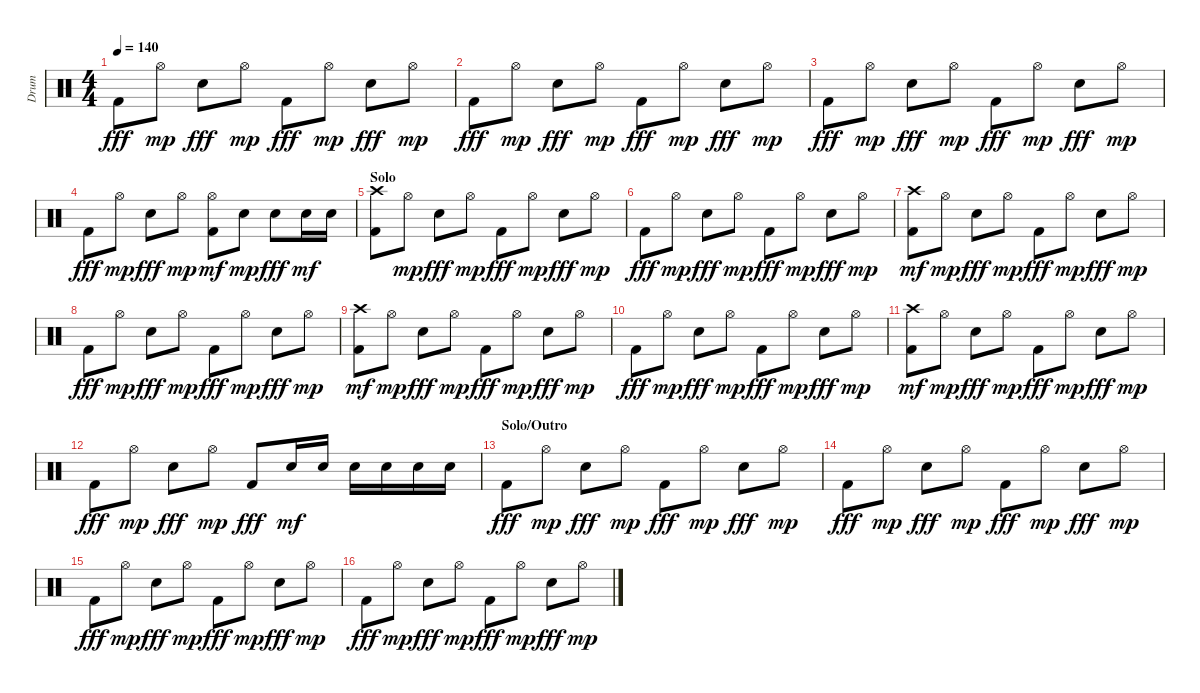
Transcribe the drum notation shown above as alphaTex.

\track ("Drum" "Drum") {instrument percussion}
\staff {score}
\articulation defaults
\ts (4 4)
\tempo 140
\clef neutral
\ks c "Kick (hit) 2".8{dy fff} "Hi-Hat (open)".8{dy mp} "Electric Snare (hit)".8{dy fff} "Hi-Hat (open)".8{dy mp} "Kick (hit) 2".8{dy fff} "Hi-Hat (open)".8{dy mp} "Electric Snare (hit)".8{dy fff} "Hi-Hat (open)".8{dy mp}
|
"Kick (hit) 2".8{dy fff} "Hi-Hat (open)".8{dy mp} "Electric Snare (hit)".8{dy fff} "Hi-Hat (open)".8{dy mp} "Kick (hit) 2".8{dy fff} "Hi-Hat (open)".8{dy mp} "Electric Snare (hit)".8{dy fff} "Hi-Hat (open)".8{dy mp} |
"Kick (hit) 2".8{dy fff} "Hi-Hat (open)".8{dy mp} "Electric Snare (hit)".8{dy fff} "Hi-Hat (open)".8{dy mp} "Kick (hit) 2".8{dy fff} "Hi-Hat (open)".8{dy mp} "Electric Snare (hit)".8{dy fff} "Hi-Hat (open)".8{dy mp} |
"Kick (hit) 2".8{dy fff} "Hi-Hat (open)".8{dy mp} "Electric Snare (hit)".8{dy fff} "Hi-Hat (open)".8{dy mp} ("Kick (hit) 2" "Hi-Hat (open)").8{dy mf} "Electric Snare (hit)".8{dy mp} "Electric Snare (hit)".8{dy fff} "Electric Snare (hit)".16{dy mf} "Electric Snare (hit)".16 |
\section ("" "Solo")
("Kick (hit) 2" "Crash high (hit)").8 "Hi-Hat (open)".8{dy mp} "Electric Snare (hit)".8{dy fff} "Hi-Hat (open)".8{dy mp} "Kick (hit) 2".8{dy fff} "Hi-Hat (open)".8{dy mp} "Electric Snare (hit)".8{dy fff} "Hi-Hat (open)".8{dy mp} |
"Kick (hit) 2".8{dy fff} "Hi-Hat (open)".8{dy mp} "Electric Snare (hit)".8{dy fff} "Hi-Hat (open)".8{dy mp} "Kick (hit) 2".8{dy fff} "Hi-Hat (open)".8{dy mp} "Electric Snare (hit)".8{dy fff} "Hi-Hat (open)".8{dy mp} |
("Kick (hit) 2" "Crash high (hit)").8{dy mf} "Hi-Hat (open)".8{dy mp} "Electric Snare (hit)".8{dy fff} "Hi-Hat (open)".8{dy mp} "Kick (hit) 2".8{dy fff} "Hi-Hat (open)".8{dy mp} "Electric Snare (hit)".8{dy fff} "Hi-Hat (open)".8{dy mp} |
"Kick (hit) 2".8{dy fff} "Hi-Hat (open)".8{dy mp} "Electric Snare (hit)".8{dy fff} "Hi-Hat (open)".8{dy mp} "Kick (hit) 2".8{dy fff} "Hi-Hat (open)".8{dy mp} "Electric Snare (hit)".8{dy fff} "Hi-Hat (open)".8{dy mp} |
("Kick (hit) 2" "Crash high (hit)").8{dy mf} "Hi-Hat (open)".8{dy mp} "Electric Snare (hit)".8{dy fff} "Hi-Hat (open)".8{dy mp} "Kick (hit) 2".8{dy fff} "Hi-Hat (open)".8{dy mp} "Electric Snare (hit)".8{dy fff} "Hi-Hat (open)".8{dy mp} |
"Kick (hit) 2".8{dy fff} "Hi-Hat (open)".8{dy mp} "Electric Snare (hit)".8{dy fff} "Hi-Hat (open)".8{dy mp} "Kick (hit) 2".8{dy fff} "Hi-Hat (open)".8{dy mp} "Electric Snare (hit)".8{dy fff} "Hi-Hat (open)".8{dy mp} |
("Kick (hit) 2" "Crash high (hit)").8{dy mf} "Hi-Hat (open)".8{dy mp} "Electric Snare (hit)".8{dy fff} "Hi-Hat (open)".8{dy mp} "Kick (hit) 2".8{dy fff} "Hi-Hat (open)".8{dy mp} "Electric Snare (hit)".8{dy fff} "Hi-Hat (open)".8{dy mp} |
"Kick (hit) 2".8{dy fff} "Hi-Hat (open)".8{dy mp} "Electric Snare (hit)".8{dy fff} "Hi-Hat (open)".8{dy mp} "Kick (hit) 2".8{dy fff} "Electric Snare (hit)".16{dy mf} "Electric Snare (hit)".16 "Electric Snare (hit)".16 "Electric Snare (hit)".16 "Electric Snare (hit)".16 "Electric Snare (hit)".16 |
\section ("" "Solo/Outro")
"Kick (hit) 2".8{dy fff} "Hi-Hat (open)".8{dy mp} "Electric Snare (hit)".8{dy fff} "Hi-Hat (open)".8{dy mp} "Kick (hit) 2".8{dy fff} "Hi-Hat (open)".8{dy mp} "Electric Snare (hit)".8{dy fff} "Hi-Hat (open)".8{dy mp} |
"Kick (hit) 2".8{dy fff} "Hi-Hat (open)".8{dy mp} "Electric Snare (hit)".8{dy fff} "Hi-Hat (open)".8{dy mp} "Kick (hit) 2".8{dy fff} "Hi-Hat (open)".8{dy mp} "Electric Snare (hit)".8{dy fff} "Hi-Hat (open)".8{dy mp} |
"Kick (hit) 2".8{dy fff} "Hi-Hat (open)".8{dy mp} "Electric Snare (hit)".8{dy fff} "Hi-Hat (open)".8{dy mp} "Kick (hit) 2".8{dy fff} "Hi-Hat (open)".8{dy mp} "Electric Snare (hit)".8{dy fff} "Hi-Hat (open)".8{dy mp} |
"Kick (hit) 2".8{dy fff} "Hi-Hat (open)".8{dy mp} "Electric Snare (hit)".8{dy fff} "Hi-Hat (open)".8{dy mp} "Kick (hit) 2".8{dy fff} "Hi-Hat (open)".8{dy mp} "Electric Snare (hit)".8{dy fff} "Hi-Hat (open)".8{dy mp}
